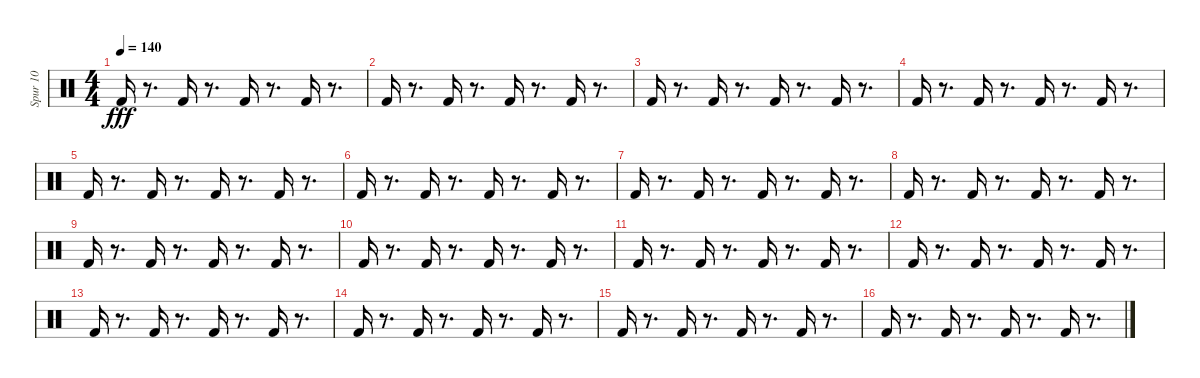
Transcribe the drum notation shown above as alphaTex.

\track ("Spur 10" "Spur 10") {instrument percussion}
\staff {score}
\articulation defaults
\ts (4 4)
\tempo 140
\clef neutral
\ks c "Kick (hit) 2".16{dy fff}
r.8{d} "Kick (hit) 2".16 r.8{d} "Kick (hit) 2".16 r.8{d} "Kick (hit) 2".16 r.8{d} |
"Kick (hit) 2".16 r.8{d} "Kick (hit) 2".16 r.8{d} "Kick (hit) 2".16 r.8{d} "Kick (hit) 2".16 r.8{d} |
"Kick (hit) 2".16 r.8{d} "Kick (hit) 2".16 r.8{d} "Kick (hit) 2".16 r.8{d} "Kick (hit) 2".16 r.8{d} |
"Kick (hit) 2".16 r.8{d} "Kick (hit) 2".16 r.8{d} "Kick (hit) 2".16 r.8{d} "Kick (hit) 2".16 r.8{d} |
"Kick (hit) 2".16 r.8{d} "Kick (hit) 2".16 r.8{d} "Kick (hit) 2".16 r.8{d} "Kick (hit) 2".16 r.8{d} |
"Kick (hit) 2".16 r.8{d} "Kick (hit) 2".16 r.8{d} "Kick (hit) 2".16 r.8{d} "Kick (hit) 2".16 r.8{d} |
"Kick (hit) 2".16 r.8{d} "Kick (hit) 2".16 r.8{d} "Kick (hit) 2".16 r.8{d} "Kick (hit) 2".16 r.8{d} |
"Kick (hit) 2".16 r.8{d} "Kick (hit) 2".16 r.8{d} "Kick (hit) 2".16 r.8{d} "Kick (hit) 2".16 r.8{d} |
"Kick (hit) 2".16 r.8{d} "Kick (hit) 2".16 r.8{d} "Kick (hit) 2".16 r.8{d} "Kick (hit) 2".16 r.8{d} |
"Kick (hit) 2".16 r.8{d} "Kick (hit) 2".16 r.8{d} "Kick (hit) 2".16 r.8{d} "Kick (hit) 2".16 r.8{d} |
"Kick (hit) 2".16 r.8{d} "Kick (hit) 2".16 r.8{d} "Kick (hit) 2".16 r.8{d} "Kick (hit) 2".16 r.8{d} |
"Kick (hit) 2".16 r.8{d} "Kick (hit) 2".16 r.8{d} "Kick (hit) 2".16 r.8{d} "Kick (hit) 2".16 r.8{d} |
"Kick (hit) 2".16 r.8{d} "Kick (hit) 2".16 r.8{d} "Kick (hit) 2".16 r.8{d} "Kick (hit) 2".16 r.8{d} |
"Kick (hit) 2".16 r.8{d} "Kick (hit) 2".16 r.8{d} "Kick (hit) 2".16 r.8{d} "Kick (hit) 2".16 r.8{d} |
"Kick (hit) 2".16 r.8{d} "Kick (hit) 2".16 r.8{d} "Kick (hit) 2".16 r.8{d} "Kick (hit) 2".16 r.8{d} |
"Kick (hit) 2".16 r.8{d} "Kick (hit) 2".16 r.8{d} "Kick (hit) 2".16 r.8{d} "Kick (hit) 2".16 r.8{d}
